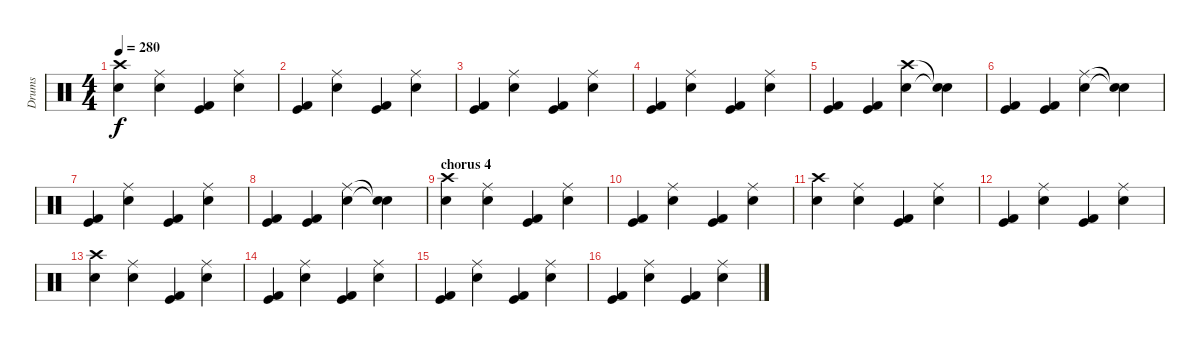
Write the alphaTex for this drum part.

\track ("Drums" "Drums") {instrument percussion}
\staff {score}
\articulation defaults
\ts (4 4)
\tempo 280
\clef neutral
\ks c
("Crash high (hit)" "Electric Snare (hit)").4{dy f} ("Ride (middle)" "Electric Snare (hit)").4 ("Kick (hit)" "Kick (hit) 2").4 ("Ride (middle)" "Electric Snare (hit)").4 |
("Kick (hit)" "Kick (hit) 2").4 ("Ride (middle)" "Electric Snare (hit)").4 ("Kick (hit)" "Kick (hit) 2").4 ("Ride (middle)" "Electric Snare (hit)").4 |
("Kick (hit)" "Kick (hit) 2").4 ("Ride (middle)" "Electric Snare (hit)").4 ("Kick (hit)" "Kick (hit) 2").4 ("Ride (middle)" "Electric Snare (hit)").4 |
("Kick (hit)" "Kick (hit) 2").4 ("Ride (middle)" "Electric Snare (hit)").4 ("Kick (hit)" "Kick (hit) 2").4 ("Ride (middle)" "Electric Snare (hit)").4 |
("Kick (hit)" "Kick (hit) 2").4 ("Kick (hit)" "Kick (hit) 2").4 ("Crash high (hit)" "Electric Snare (hit)").4 ("Snare (hit)"{t} "Snare (hit)"{t}).4 |
("Kick (hit)" "Kick (hit) 2").4 ("Kick (hit)" "Kick (hit) 2").4 ("Ride (middle)" "Electric Snare (hit)").4 ("Snare (hit)"{t} "Snare (hit)"{t}).4 |
("Kick (hit)" "Kick (hit) 2").4 ("Ride (middle)" "Electric Snare (hit)").4 ("Kick (hit)" "Kick (hit) 2").4 ("Ride (middle)" "Electric Snare (hit)").4 |
("Kick (hit)" "Kick (hit) 2").4 ("Kick (hit)" "Kick (hit) 2").4 ("Ride (middle)" "Electric Snare (hit)").4 ("Snare (hit)"{t} "Snare (hit)"{t}).4 |
\section ("" "chorus 4")
("Crash high (hit)" "Electric Snare (hit)").4 ("Ride (middle)" "Electric Snare (hit)").4 ("Kick (hit)" "Kick (hit) 2").4 ("Ride (middle)" "Electric Snare (hit)").4 |
("Kick (hit)" "Kick (hit) 2").4 ("Ride (middle)" "Electric Snare (hit)").4 ("Kick (hit)" "Kick (hit) 2").4 ("Ride (middle)" "Electric Snare (hit)").4 |
("Crash high (hit)" "Electric Snare (hit)").4 ("Ride (middle)" "Electric Snare (hit)").4 ("Kick (hit)" "Kick (hit) 2").4 ("Ride (middle)" "Electric Snare (hit)").4 |
("Kick (hit)" "Kick (hit) 2").4 ("Ride (middle)" "Electric Snare (hit)").4 ("Kick (hit)" "Kick (hit) 2").4 ("Ride (middle)" "Electric Snare (hit)").4 |
("Crash high (hit)" "Electric Snare (hit)").4 ("Ride (middle)" "Electric Snare (hit)").4 ("Kick (hit)" "Kick (hit) 2").4 ("Ride (middle)" "Electric Snare (hit)").4 |
("Kick (hit)" "Kick (hit) 2").4 ("Ride (middle)" "Electric Snare (hit)").4 ("Kick (hit)" "Kick (hit) 2").4 ("Ride (middle)" "Electric Snare (hit)").4 |
("Kick (hit)" "Kick (hit) 2").4 ("Ride (middle)" "Electric Snare (hit)").4 ("Kick (hit)" "Kick (hit) 2").4 ("Ride (middle)" "Electric Snare (hit)").4 |
("Kick (hit)" "Kick (hit) 2").4 ("Ride (middle)" "Electric Snare (hit)").4 ("Kick (hit)" "Kick (hit) 2").4 ("Ride (middle)" "Electric Snare (hit)").4
